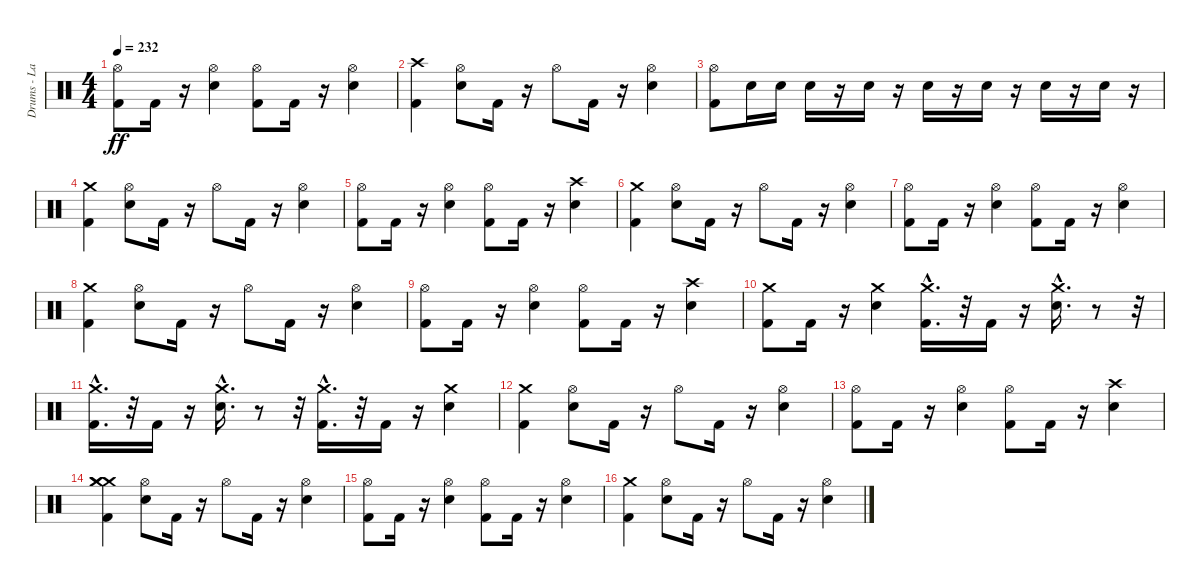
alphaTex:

\track ("Drums - Larzon" "Drums - La") {instrument percussion}
\staff {score}
\articulation defaults
\ts (4 4)
\tempo 232
\clef neutral
\ks c
("Kick (hit) 2" "Hi-Hat (open)").8{dy ff} "Kick (hit) 2".16 r.16 ("Electric Snare (hit)" "Hi-Hat (open)").4 ("Kick (hit) 2" "Hi-Hat (open)").8 "Kick (hit) 2".16 r.16 ("Electric Snare (hit)" "Hi-Hat (open)").4 |
("Crash high (hit)" "Kick (hit) 2").4 ("Hi-Hat (open)" "Electric Snare (hit)").8 "Kick (hit) 2".16 r.16 "Hi-Hat (open)".8 "Kick (hit) 2".16 r.16 ("Hi-Hat (open)" "Electric Snare (hit)").4 |
("Hi-Hat (open)" "Kick (hit) 2").8 "Electric Snare (hit)".16 "Electric Snare (hit)".16 "Electric Snare (hit)".16 r.16 "Electric Snare (hit)".16 r.16 "Electric Snare (hit)".16 r.16 "Electric Snare (hit)".16 r.16 "Electric Snare (hit)".16 r.16 "Electric Snare (hit)".16 r.16 |
("Kick (hit) 2" "Crash medium (hit)").4 ("Electric Snare (hit)" "Hi-Hat (open)").8 "Kick (hit) 2".16 r.16 "Hi-Hat (open)".8 "Kick (hit) 2".16 r.16 ("Electric Snare (hit)" "Hi-Hat (open)").4 |
("Kick (hit) 2" "Hi-Hat (open)").8 "Kick (hit) 2".16 r.16 ("Electric Snare (hit)" "Hi-Hat (open)").4 ("Kick (hit) 2" "Hi-Hat (open)").8 "Kick (hit) 2".16 r.16 ("Electric Snare (hit)" "Crash high (hit)").4 |
("Kick (hit) 2" "Crash medium (hit)").4 ("Electric Snare (hit)" "Hi-Hat (open)").8 "Kick (hit) 2".16 r.16 "Hi-Hat (open)".8 "Kick (hit) 2".16 r.16 ("Electric Snare (hit)" "Hi-Hat (open)").4 |
("Kick (hit) 2" "Hi-Hat (open)").8 "Kick (hit) 2".16 r.16 ("Electric Snare (hit)" "Hi-Hat (open)").4 ("Kick (hit) 2" "Hi-Hat (open)").8 "Kick (hit) 2".16 r.16 ("Electric Snare (hit)" "Hi-Hat (open)").4 |
("Kick (hit) 2" "Crash medium (hit)").4 ("Electric Snare (hit)" "Hi-Hat (open)").8 "Kick (hit) 2".16 r.16 "Hi-Hat (open)".8 "Kick (hit) 2".16 r.16 ("Electric Snare (hit)" "Hi-Hat (open)").4 |
("Kick (hit) 2" "Hi-Hat (open)").8 "Kick (hit) 2".16 r.16 ("Electric Snare (hit)" "Hi-Hat (open)").4 ("Kick (hit) 2" "Hi-Hat (open)").8 "Kick (hit) 2".16 r.16 ("Electric Snare (hit)" "Crash high (hit)").4 |
("Kick (hit) 2" "Crash medium (hit)").8 "Kick (hit) 2".16 r.16 ("Electric Snare (hit)" "Crash medium (hit)").4 ("Crash medium (hit)"{hac} "Kick (hit) 2").16{d} r.32 "Kick (hit) 2".16 r.16 ("Electric Snare (hit)" "Crash medium (hit)"{hac}).16{d} r.8 r.32 |
("Kick (hit) 2" "Crash medium (hit)"{hac}).16{d} r.32 "Kick (hit) 2".16 r.16 ("Electric Snare (hit)" "Crash medium (hit)"{hac}).16{d} r.8 r.32 ("Kick (hit) 2" "Crash medium (hit)"{hac}).16{d} r.32 "Kick (hit) 2".16 r.16 ("Electric Snare (hit)" "Crash medium (hit)").4 |
("Kick (hit) 2" "Crash medium (hit)").4 ("Electric Snare (hit)" "Hi-Hat (open)").8 "Kick (hit) 2".16 r.16 "Hi-Hat (open)".8 "Kick (hit) 2".16 r.16 ("Electric Snare (hit)" "Hi-Hat (open)").4 |
("Kick (hit) 2" "Hi-Hat (open)").8 "Kick (hit) 2".16 r.16 ("Electric Snare (hit)" "Hi-Hat (open)").4 ("Kick (hit) 2" "Hi-Hat (open)").8 "Kick (hit) 2".16 r.16 ("Electric Snare (hit)" "Crash high (hit)").4 |
("Crash medium (hit)" "Crash medium (hit)" "Kick (hit) 2" "Crash medium (hit)").4 ("Electric Snare (hit)" "Hi-Hat (open)").8 "Kick (hit) 2".16 r.16 "Hi-Hat (open)".8 "Kick (hit) 2".16 r.16 ("Electric Snare (hit)" "Hi-Hat (open)").4 |
("Kick (hit) 2" "Hi-Hat (open)").8 "Kick (hit) 2".16 r.16 ("Electric Snare (hit)" "Hi-Hat (open)").4 ("Kick (hit) 2" "Hi-Hat (open)").8 "Kick (hit) 2".16 r.16 ("Electric Snare (hit)" "Hi-Hat (open)").4 |
("Kick (hit) 2" "Crash medium (hit)").4 ("Electric Snare (hit)" "Hi-Hat (open)").8 "Kick (hit) 2".16 r.16 "Hi-Hat (open)".8 "Kick (hit) 2".16 r.16 ("Electric Snare (hit)" "Hi-Hat (open)").4
